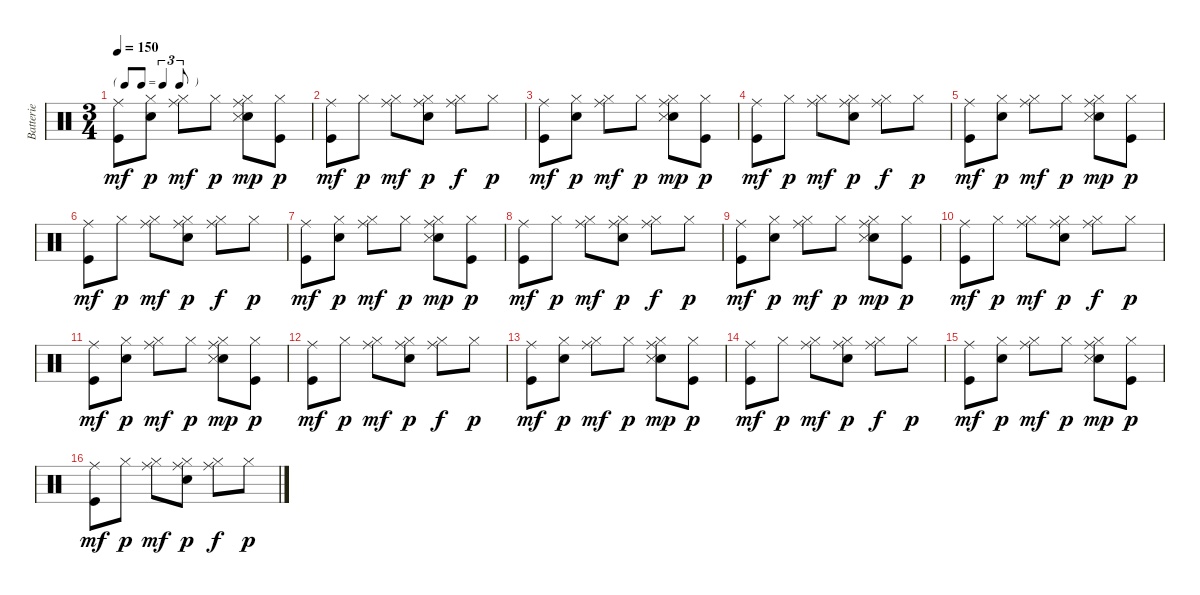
\track ("Batterie" "Batterie") {instrument percussion}
\staff {score}
\articulation defaults
\ts (3 4)
\tf triplet8th
\tempo 150
\clef neutral
\ks c
("Kick (hit)" "Ride (middle)").8{dy mf} ("Snare (hit) 2" "Hi-Hat (closed)").8{dy p} ("Hi-Hat (closed)" "Ride (middle)").8{dy mf} "Hi-Hat (closed)".8{dy p} ("Snare (hit) 2" "Hi-Hat (closed)" "Snare (side stick) 3" "Ride (middle)").8{dy mp} ("Kick (hit)" "Hi-Hat (closed)").8{dy p} |
("Kick (hit)" "Ride (middle)").8{dy mf} "Hi-Hat (closed)".8{dy p} ("Hi-Hat (closed)" "Ride (middle)").8{dy mf} ("Snare (hit) 2" "Hi-Hat (closed)" "Ride (middle)").8{dy p} ("Hi-Hat (closed)" "Ride (middle)").8{dy f} "Hi-Hat (closed)".8{dy p} |
("Kick (hit)" "Ride (middle)").8{dy mf} ("Snare (hit) 2" "Hi-Hat (closed)").8{dy p} ("Hi-Hat (closed)" "Ride (middle)").8{dy mf} "Hi-Hat (closed)".8{dy p} ("Snare (hit) 2" "Hi-Hat (closed)" "Snare (side stick) 3" "Ride (middle)").8{dy mp} ("Kick (hit)" "Hi-Hat (closed)").8{dy p} |
("Kick (hit)" "Ride (middle)").8{dy mf} "Hi-Hat (closed)".8{dy p} ("Hi-Hat (closed)" "Ride (middle)").8{dy mf} ("Snare (hit) 2" "Hi-Hat (closed)" "Ride (middle)").8{dy p} ("Hi-Hat (closed)" "Ride (middle)").8{dy f} "Hi-Hat (closed)".8{dy p} |
("Kick (hit)" "Ride (middle)").8{dy mf} ("Snare (hit) 2" "Hi-Hat (closed)").8{dy p} ("Hi-Hat (closed)" "Ride (middle)").8{dy mf} "Hi-Hat (closed)".8{dy p} ("Snare (hit) 2" "Hi-Hat (closed)" "Snare (side stick) 3" "Ride (middle)").8{dy mp} ("Kick (hit)" "Hi-Hat (closed)").8{dy p} |
("Kick (hit)" "Ride (middle)").8{dy mf} "Hi-Hat (closed)".8{dy p} ("Hi-Hat (closed)" "Ride (middle)").8{dy mf} ("Snare (hit) 2" "Hi-Hat (closed)" "Ride (middle)").8{dy p} ("Hi-Hat (closed)" "Ride (middle)").8{dy f} "Hi-Hat (closed)".8{dy p} |
("Kick (hit)" "Ride (middle)").8{dy mf} ("Snare (hit) 2" "Hi-Hat (closed)").8{dy p} ("Hi-Hat (closed)" "Ride (middle)").8{dy mf} "Hi-Hat (closed)".8{dy p} ("Snare (hit) 2" "Hi-Hat (closed)" "Snare (side stick) 3" "Ride (middle)").8{dy mp} ("Kick (hit)" "Hi-Hat (closed)").8{dy p} |
("Kick (hit)" "Ride (middle)").8{dy mf} "Hi-Hat (closed)".8{dy p} ("Hi-Hat (closed)" "Ride (middle)").8{dy mf} ("Snare (hit) 2" "Hi-Hat (closed)" "Ride (middle)").8{dy p} ("Hi-Hat (closed)" "Ride (middle)").8{dy f} "Hi-Hat (closed)".8{dy p} |
("Kick (hit)" "Ride (middle)").8{dy mf} ("Snare (hit) 2" "Hi-Hat (closed)").8{dy p} ("Hi-Hat (closed)" "Ride (middle)").8{dy mf} "Hi-Hat (closed)".8{dy p} ("Snare (hit) 2" "Hi-Hat (closed)" "Snare (side stick) 3" "Ride (middle)").8{dy mp} ("Kick (hit)" "Hi-Hat (closed)").8{dy p} |
("Kick (hit)" "Ride (middle)").8{dy mf} "Hi-Hat (closed)".8{dy p} ("Hi-Hat (closed)" "Ride (middle)").8{dy mf} ("Snare (hit) 2" "Hi-Hat (closed)" "Ride (middle)").8{dy p} ("Hi-Hat (closed)" "Ride (middle)").8{dy f} "Hi-Hat (closed)".8{dy p} |
("Kick (hit)" "Ride (middle)").8{dy mf} ("Snare (hit) 2" "Hi-Hat (closed)").8{dy p} ("Hi-Hat (closed)" "Ride (middle)").8{dy mf} "Hi-Hat (closed)".8{dy p} ("Snare (hit) 2" "Hi-Hat (closed)" "Snare (side stick) 3" "Ride (middle)").8{dy mp} ("Kick (hit)" "Hi-Hat (closed)").8{dy p} |
("Kick (hit)" "Ride (middle)").8{dy mf} "Hi-Hat (closed)".8{dy p} ("Hi-Hat (closed)" "Ride (middle)").8{dy mf} ("Snare (hit) 2" "Hi-Hat (closed)" "Ride (middle)").8{dy p} ("Hi-Hat (closed)" "Ride (middle)").8{dy f} "Hi-Hat (closed)".8{dy p} |
("Kick (hit)" "Ride (middle)").8{dy mf} ("Snare (hit) 2" "Hi-Hat (closed)").8{dy p} ("Hi-Hat (closed)" "Ride (middle)").8{dy mf} "Hi-Hat (closed)".8{dy p} ("Snare (hit) 2" "Hi-Hat (closed)" "Snare (side stick) 3" "Ride (middle)").8{dy mp} ("Kick (hit)" "Hi-Hat (closed)").8{dy p} |
("Kick (hit)" "Ride (middle)").8{dy mf} "Hi-Hat (closed)".8{dy p} ("Hi-Hat (closed)" "Ride (middle)").8{dy mf} ("Snare (hit) 2" "Hi-Hat (closed)" "Ride (middle)").8{dy p} ("Hi-Hat (closed)" "Ride (middle)").8{dy f} "Hi-Hat (closed)".8{dy p} |
("Kick (hit)" "Ride (middle)").8{dy mf} ("Snare (hit) 2" "Hi-Hat (closed)").8{dy p} ("Hi-Hat (closed)" "Ride (middle)").8{dy mf} "Hi-Hat (closed)".8{dy p} ("Snare (hit) 2" "Hi-Hat (closed)" "Snare (side stick) 3" "Ride (middle)").8{dy mp} ("Kick (hit)" "Hi-Hat (closed)").8{dy p} |
("Kick (hit)" "Ride (middle)").8{dy mf} "Hi-Hat (closed)".8{dy p} ("Hi-Hat (closed)" "Ride (middle)").8{dy mf} ("Snare (hit) 2" "Hi-Hat (closed)" "Ride (middle)").8{dy p} ("Hi-Hat (closed)" "Ride (middle)").8{dy f} "Hi-Hat (closed)".8{dy p}
